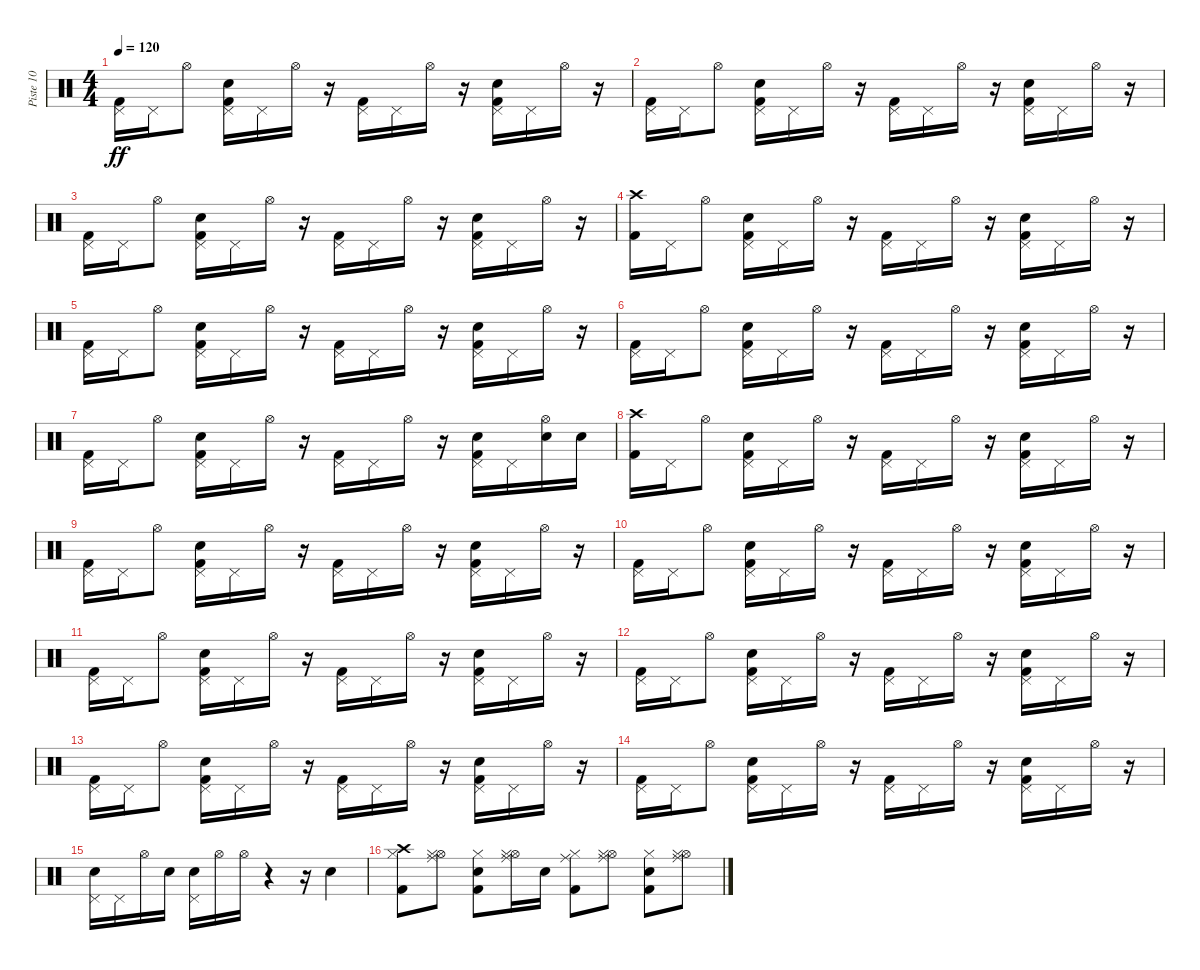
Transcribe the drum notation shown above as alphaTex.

\track ("Piste 10" "Piste 10") {instrument percussion}
\staff {score}
\articulation defaults
\ts (4 4)
\tempo 120
\clef neutral
\ks c
("Kick (hit) 2" "Pedal Hi-Hat (hit)").16{dy ff} "Pedal Hi-Hat (hit)".16 "Hi-Hat (open)".8 ("Kick (hit) 2" "Snare (hit) 2" "Pedal Hi-Hat (hit)").16 "Pedal Hi-Hat (hit)".16 "Hi-Hat (open)".16 r.16 ("Kick (hit) 2" "Pedal Hi-Hat (hit)").16 "Pedal Hi-Hat (hit)".16 "Hi-Hat (open)".16 r.16 ("Kick (hit) 2" "Snare (hit) 2" "Pedal Hi-Hat (hit)").16 "Pedal Hi-Hat (hit)".16 "Hi-Hat (open)".16 r.16 |
("Kick (hit) 2" "Pedal Hi-Hat (hit)").16 "Pedal Hi-Hat (hit)".16 "Hi-Hat (open)".8 ("Kick (hit) 2" "Snare (hit) 2" "Pedal Hi-Hat (hit)").16 "Pedal Hi-Hat (hit)".16 "Hi-Hat (open)".16 r.16 ("Kick (hit) 2" "Pedal Hi-Hat (hit)").16 "Pedal Hi-Hat (hit)".16 "Hi-Hat (open)".16 r.16 ("Kick (hit) 2" "Snare (hit) 2" "Pedal Hi-Hat (hit)").16 "Pedal Hi-Hat (hit)".16 "Hi-Hat (open)".16 r.16 |
("Kick (hit) 2" "Pedal Hi-Hat (hit)").16 "Pedal Hi-Hat (hit)".16 "Hi-Hat (open)".8 ("Kick (hit) 2" "Snare (hit) 2" "Pedal Hi-Hat (hit)").16 "Pedal Hi-Hat (hit)".16 "Hi-Hat (open)".16 r.16 ("Kick (hit) 2" "Pedal Hi-Hat (hit)").16 "Pedal Hi-Hat (hit)".16 "Hi-Hat (open)".16 r.16 ("Kick (hit) 2" "Snare (hit) 2" "Pedal Hi-Hat (hit)").16 "Pedal Hi-Hat (hit)".16 "Hi-Hat (open)".16 r.16 |
("Crash high (hit)" "Kick (hit) 2").16 "Pedal Hi-Hat (hit)".16 "Hi-Hat (open)".8 ("Kick (hit) 2" "Snare (hit) 2" "Pedal Hi-Hat (hit)").16 "Pedal Hi-Hat (hit)".16 "Hi-Hat (open)".16 r.16 ("Kick (hit) 2" "Pedal Hi-Hat (hit)").16 "Pedal Hi-Hat (hit)".16 "Hi-Hat (open)".16 r.16 ("Kick (hit) 2" "Snare (hit) 2" "Pedal Hi-Hat (hit)").16 "Pedal Hi-Hat (hit)".16 "Hi-Hat (open)".16 r.16 |
("Kick (hit) 2" "Pedal Hi-Hat (hit)").16 "Pedal Hi-Hat (hit)".16 "Hi-Hat (open)".8 ("Kick (hit) 2" "Snare (hit) 2" "Pedal Hi-Hat (hit)").16 "Pedal Hi-Hat (hit)".16 "Hi-Hat (open)".16 r.16 ("Kick (hit) 2" "Pedal Hi-Hat (hit)").16 "Pedal Hi-Hat (hit)".16 "Hi-Hat (open)".16 r.16 ("Kick (hit) 2" "Snare (hit) 2" "Pedal Hi-Hat (hit)").16 "Pedal Hi-Hat (hit)".16 "Hi-Hat (open)".16 r.16 |
("Kick (hit) 2" "Pedal Hi-Hat (hit)").16 "Pedal Hi-Hat (hit)".16 "Hi-Hat (open)".8 ("Kick (hit) 2" "Snare (hit) 2" "Pedal Hi-Hat (hit)").16 "Pedal Hi-Hat (hit)".16 "Hi-Hat (open)".16 r.16 ("Kick (hit) 2" "Pedal Hi-Hat (hit)").16 "Pedal Hi-Hat (hit)".16 "Hi-Hat (open)".16 r.16 ("Kick (hit) 2" "Snare (hit) 2" "Pedal Hi-Hat (hit)").16 "Pedal Hi-Hat (hit)".16 "Hi-Hat (open)".16 r.16 |
("Kick (hit) 2" "Pedal Hi-Hat (hit)").16 "Pedal Hi-Hat (hit)".16 "Hi-Hat (open)".8 ("Kick (hit) 2" "Snare (hit) 2" "Pedal Hi-Hat (hit)").16 "Pedal Hi-Hat (hit)".16 "Hi-Hat (open)".16 r.16 ("Kick (hit) 2" "Pedal Hi-Hat (hit)").16 "Pedal Hi-Hat (hit)".16 "Hi-Hat (open)".16 r.16 ("Kick (hit) 2" "Snare (hit) 2" "Pedal Hi-Hat (hit)").16 "Pedal Hi-Hat (hit)".16 ("Snare (hit) 2" "Hi-Hat (open)").16 "Snare (hit) 2".16 |
("Crash high (hit)" "Kick (hit) 2").16 "Pedal Hi-Hat (hit)".16 "Hi-Hat (open)".8 ("Kick (hit) 2" "Snare (hit) 2" "Pedal Hi-Hat (hit)").16 "Pedal Hi-Hat (hit)".16 "Hi-Hat (open)".16 r.16 ("Kick (hit) 2" "Pedal Hi-Hat (hit)").16 "Pedal Hi-Hat (hit)".16 "Hi-Hat (open)".16 r.16 ("Kick (hit) 2" "Snare (hit) 2" "Pedal Hi-Hat (hit)").16 "Pedal Hi-Hat (hit)".16 "Hi-Hat (open)".16 r.16 |
("Kick (hit) 2" "Pedal Hi-Hat (hit)").16 "Pedal Hi-Hat (hit)".16 "Hi-Hat (open)".8 ("Kick (hit) 2" "Snare (hit) 2" "Pedal Hi-Hat (hit)").16 "Pedal Hi-Hat (hit)".16 "Hi-Hat (open)".16 r.16 ("Kick (hit) 2" "Pedal Hi-Hat (hit)").16 "Pedal Hi-Hat (hit)".16 "Hi-Hat (open)".16 r.16 ("Kick (hit) 2" "Snare (hit) 2" "Pedal Hi-Hat (hit)").16 "Pedal Hi-Hat (hit)".16 "Hi-Hat (open)".16 r.16 |
("Kick (hit) 2" "Pedal Hi-Hat (hit)").16 "Pedal Hi-Hat (hit)".16 "Hi-Hat (open)".8 ("Kick (hit) 2" "Snare (hit) 2" "Pedal Hi-Hat (hit)").16 "Pedal Hi-Hat (hit)".16 "Hi-Hat (open)".16 r.16 ("Kick (hit) 2" "Pedal Hi-Hat (hit)").16 "Pedal Hi-Hat (hit)".16 "Hi-Hat (open)".16 r.16 ("Kick (hit) 2" "Snare (hit) 2" "Pedal Hi-Hat (hit)").16 "Pedal Hi-Hat (hit)".16 "Hi-Hat (open)".16 r.16 |
("Kick (hit) 2" "Pedal Hi-Hat (hit)").16 "Pedal Hi-Hat (hit)".16 "Hi-Hat (open)".8 ("Kick (hit) 2" "Snare (hit) 2" "Pedal Hi-Hat (hit)").16 "Pedal Hi-Hat (hit)".16 "Hi-Hat (open)".16 r.16 ("Kick (hit) 2" "Pedal Hi-Hat (hit)").16 "Pedal Hi-Hat (hit)".16 "Hi-Hat (open)".16 r.16 ("Kick (hit) 2" "Snare (hit) 2" "Pedal Hi-Hat (hit)").16 "Pedal Hi-Hat (hit)".16 "Hi-Hat (open)".16 r.16 |
("Kick (hit) 2" "Pedal Hi-Hat (hit)").16 "Pedal Hi-Hat (hit)".16 "Hi-Hat (open)".8 ("Kick (hit) 2" "Snare (hit) 2" "Pedal Hi-Hat (hit)").16 "Pedal Hi-Hat (hit)".16 "Hi-Hat (open)".16 r.16 ("Kick (hit) 2" "Pedal Hi-Hat (hit)").16 "Pedal Hi-Hat (hit)".16 "Hi-Hat (open)".16 r.16 ("Kick (hit) 2" "Snare (hit) 2" "Pedal Hi-Hat (hit)").16 "Pedal Hi-Hat (hit)".16 "Hi-Hat (open)".16 r.16 |
("Kick (hit) 2" "Pedal Hi-Hat (hit)").16 "Pedal Hi-Hat (hit)".16 "Hi-Hat (open)".8 ("Kick (hit) 2" "Snare (hit) 2" "Pedal Hi-Hat (hit)").16 "Pedal Hi-Hat (hit)".16 "Hi-Hat (open)".16 r.16 ("Kick (hit) 2" "Pedal Hi-Hat (hit)").16 "Pedal Hi-Hat (hit)".16 "Hi-Hat (open)".16 r.16 ("Kick (hit) 2" "Snare (hit) 2" "Pedal Hi-Hat (hit)").16 "Pedal Hi-Hat (hit)".16 "Hi-Hat (open)".16 r.16 |
("Kick (hit) 2" "Pedal Hi-Hat (hit)").16 "Pedal Hi-Hat (hit)".16 "Hi-Hat (open)".8 ("Kick (hit) 2" "Snare (hit) 2" "Pedal Hi-Hat (hit)").16 "Pedal Hi-Hat (hit)".16 "Hi-Hat (open)".16 r.16 ("Kick (hit) 2" "Pedal Hi-Hat (hit)").16 "Pedal Hi-Hat (hit)".16 "Hi-Hat (open)".16 r.16 ("Kick (hit) 2" "Snare (hit) 2" "Pedal Hi-Hat (hit)").16 "Pedal Hi-Hat (hit)".16 "Hi-Hat (open)".16 r.16 |
("Snare (hit) 2" "Pedal Hi-Hat (hit)").16 "Pedal Hi-Hat (hit)".16 "Hi-Hat (open)".16 "Snare (hit) 2".16 ("Snare (hit) 2" "Pedal Hi-Hat (hit)").16 "Hi-Hat (open)".16 "Hi-Hat (open)".16 r.4 r.16 "Snare (hit) 2".4 |
("Kick (hit) 2" "Crash high (hit)" "Hi-Hat (closed)").8 ("Ride (middle)" "Hi-Hat (open)" "Hi-Hat (closed)").8 ("Kick (hit) 2" "Snare (hit) 2" "Hi-Hat (closed)").8 ("Ride (middle)" "Hi-Hat (open)" "Hi-Hat (closed)").16 "Snare (hit) 2".16 ("Kick (hit) 2" "Ride (middle)" "Hi-Hat (closed)").8 ("Ride (middle)" "Hi-Hat (open)" "Hi-Hat (closed)").8 ("Kick (hit) 2" "Snare (hit) 2" "Hi-Hat (closed)").8 ("Ride (middle)" "Hi-Hat (open)" "Hi-Hat (closed)").8
